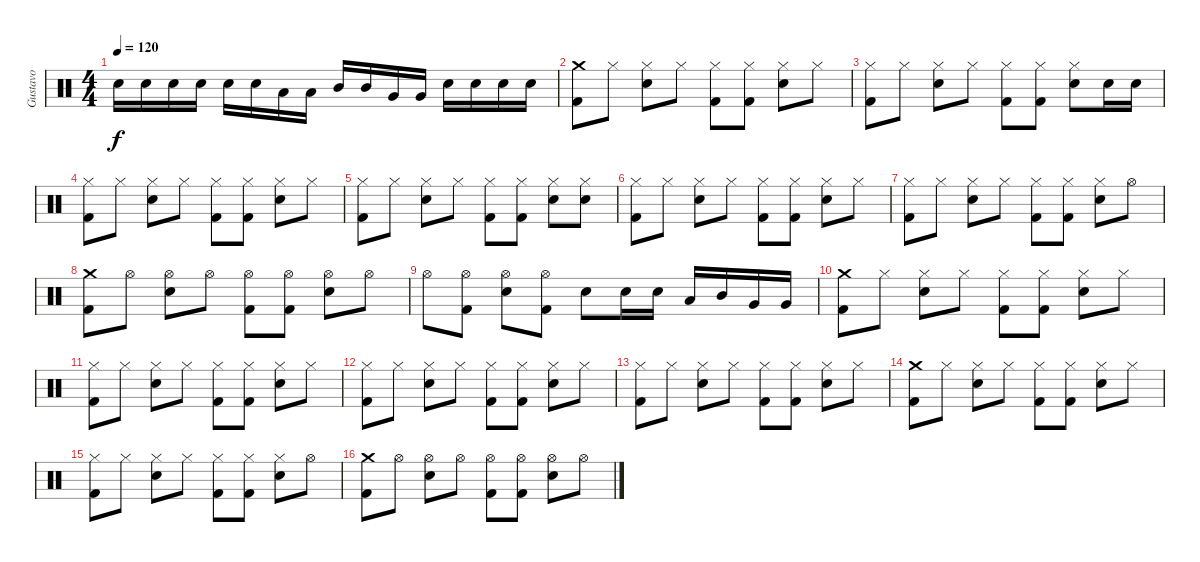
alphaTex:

\track ("Gustavo" "Gustavo") {instrument percussion}
\staff {score}
\articulation defaults
\ts (4 4)
\tempo 120
\clef neutral
\ks c "Snare (hit) 2".16{dy f} "Snare (hit) 2".16 "Snare (hit) 2".16 "Snare (hit) 2".16 "Snare (hit) 2".16 "Snare (hit) 2".16 "Low Tom (hit)".16 "Low Tom (hit)".16 "Mid Tom (hit)".16 "Mid Tom (hit)".16 "Very Low Tom (hit)".16 "Very Low Tom (hit)".16 "Snare (hit) 2".16 "Snare (hit) 2".16 "Snare (hit) 2".16 "Snare (hit) 2".16
|
("Crash medium (hit)" "Kick (hit) 2").8 "Hi-Hat (closed)".8 ("Hi-Hat (closed)" "Snare (hit) 2").8 "Hi-Hat (closed)".8 ("Hi-Hat (closed)" "Kick (hit) 2").8 ("Hi-Hat (closed)" "Kick (hit) 2").8 ("Hi-Hat (closed)" "Snare (hit) 2").8 "Hi-Hat (closed)".8 |
("Hi-Hat (closed)" "Kick (hit) 2").8 "Hi-Hat (closed)".8 ("Hi-Hat (closed)" "Snare (hit) 2").8 "Hi-Hat (closed)".8 ("Hi-Hat (closed)" "Kick (hit) 2").8 ("Hi-Hat (closed)" "Kick (hit) 2").8 ("Hi-Hat (closed)" "Snare (hit) 2").8 "Snare (hit) 2".16 "Snare (hit) 2".16 |
("Hi-Hat (closed)" "Kick (hit) 2").8 "Hi-Hat (closed)".8 ("Hi-Hat (closed)" "Snare (hit) 2").8 "Hi-Hat (closed)".8 ("Hi-Hat (closed)" "Kick (hit) 2").8 ("Hi-Hat (closed)" "Kick (hit) 2").8 ("Hi-Hat (closed)" "Snare (hit) 2").8 "Hi-Hat (closed)".8 |
("Hi-Hat (closed)" "Kick (hit) 2").8 "Hi-Hat (closed)".8 ("Hi-Hat (closed)" "Snare (hit) 2").8 "Hi-Hat (closed)".8 ("Hi-Hat (closed)" "Kick (hit) 2").8 ("Hi-Hat (closed)" "Kick (hit) 2").8 ("Hi-Hat (closed)" "Snare (hit) 2").8 ("Hi-Hat (closed)" "Snare (hit) 2").8 |
("Hi-Hat (closed)" "Kick (hit) 2").8 "Hi-Hat (closed)".8 ("Hi-Hat (closed)" "Snare (hit) 2").8 "Hi-Hat (closed)".8 ("Hi-Hat (closed)" "Kick (hit) 2").8 ("Hi-Hat (closed)" "Kick (hit) 2").8 ("Hi-Hat (closed)" "Snare (hit) 2").8 "Hi-Hat (closed)".8 |
("Hi-Hat (closed)" "Kick (hit) 2").8 "Hi-Hat (closed)".8 ("Hi-Hat (closed)" "Snare (hit) 2").8 "Hi-Hat (closed)".8 ("Hi-Hat (closed)" "Kick (hit) 2").8 ("Hi-Hat (closed)" "Kick (hit) 2").8 ("Hi-Hat (closed)" "Snare (hit) 2").8 "Hi-Hat (open)".8 |
("Crash medium (hit)" "Kick (hit) 2").8 "Hi-Hat (open)".8 ("Hi-Hat (open)" "Snare (hit) 2").8 "Hi-Hat (open)".8 ("Hi-Hat (open)" "Kick (hit) 2").8 ("Hi-Hat (open)" "Kick (hit) 2").8 ("Hi-Hat (open)" "Snare (hit) 2").8 "Hi-Hat (open)".8 |
"Hi-Hat (open)".8 ("Hi-Hat (open)" "Kick (hit) 2").8 ("Hi-Hat (open)" "Snare (hit) 2").8 ("Hi-Hat (open)" "Kick (hit) 2").8 "Snare (hit) 2".8 "Snare (hit) 2".16 "Snare (hit) 2".16 "Low Tom (hit)".16 "Mid Tom (hit)".16 "Very Low Tom (hit)".16 "Very Low Tom (hit)".16 |
("Crash medium (hit)" "Kick (hit) 2").8 "Hi-Hat (closed)".8 ("Hi-Hat (closed)" "Snare (hit) 2").8 "Hi-Hat (closed)".8 ("Hi-Hat (closed)" "Kick (hit) 2").8 ("Hi-Hat (closed)" "Kick (hit) 2").8 ("Hi-Hat (closed)" "Snare (hit) 2").8 "Hi-Hat (closed)".8 |
("Hi-Hat (closed)" "Kick (hit) 2").8 "Hi-Hat (closed)".8 ("Hi-Hat (closed)" "Snare (hit) 2").8 "Hi-Hat (closed)".8 ("Hi-Hat (closed)" "Kick (hit) 2").8 ("Hi-Hat (closed)" "Kick (hit) 2").8 ("Hi-Hat (closed)" "Snare (hit) 2").8 "Hi-Hat (closed)".8 |
("Hi-Hat (closed)" "Kick (hit) 2").8 "Hi-Hat (closed)".8 ("Hi-Hat (closed)" "Snare (hit) 2").8 "Hi-Hat (closed)".8 ("Hi-Hat (closed)" "Kick (hit) 2").8 ("Hi-Hat (closed)" "Kick (hit) 2").8 ("Hi-Hat (closed)" "Snare (hit) 2").8 "Hi-Hat (closed)".8 |
("Hi-Hat (closed)" "Kick (hit) 2").8 "Hi-Hat (closed)".8 ("Hi-Hat (closed)" "Snare (hit) 2").8 "Hi-Hat (closed)".8 ("Hi-Hat (closed)" "Kick (hit) 2").8 ("Hi-Hat (closed)" "Kick (hit) 2").8 ("Hi-Hat (closed)" "Snare (hit) 2").8 "Hi-Hat (closed)".8 |
("Crash medium (hit)" "Kick (hit) 2").8 "Hi-Hat (closed)".8 ("Hi-Hat (closed)" "Snare (hit) 2").8 "Hi-Hat (closed)".8 ("Hi-Hat (closed)" "Kick (hit) 2").8 ("Hi-Hat (closed)" "Kick (hit) 2").8 ("Hi-Hat (closed)" "Snare (hit) 2").8 "Hi-Hat (closed)".8 |
("Hi-Hat (closed)" "Kick (hit) 2").8 "Hi-Hat (closed)".8 ("Hi-Hat (closed)" "Snare (hit) 2").8 "Hi-Hat (closed)".8 ("Hi-Hat (closed)" "Kick (hit) 2").8 ("Hi-Hat (closed)" "Kick (hit) 2").8 ("Hi-Hat (closed)" "Snare (hit) 2").8 "Hi-Hat (open)".8 |
("Crash medium (hit)" "Kick (hit) 2").8 "Hi-Hat (open)".8 ("Hi-Hat (open)" "Snare (hit) 2").8 "Hi-Hat (open)".8 ("Hi-Hat (open)" "Kick (hit) 2").8 ("Hi-Hat (open)" "Kick (hit) 2").8 ("Hi-Hat (open)" "Snare (hit) 2").8 "Hi-Hat (open)".8
